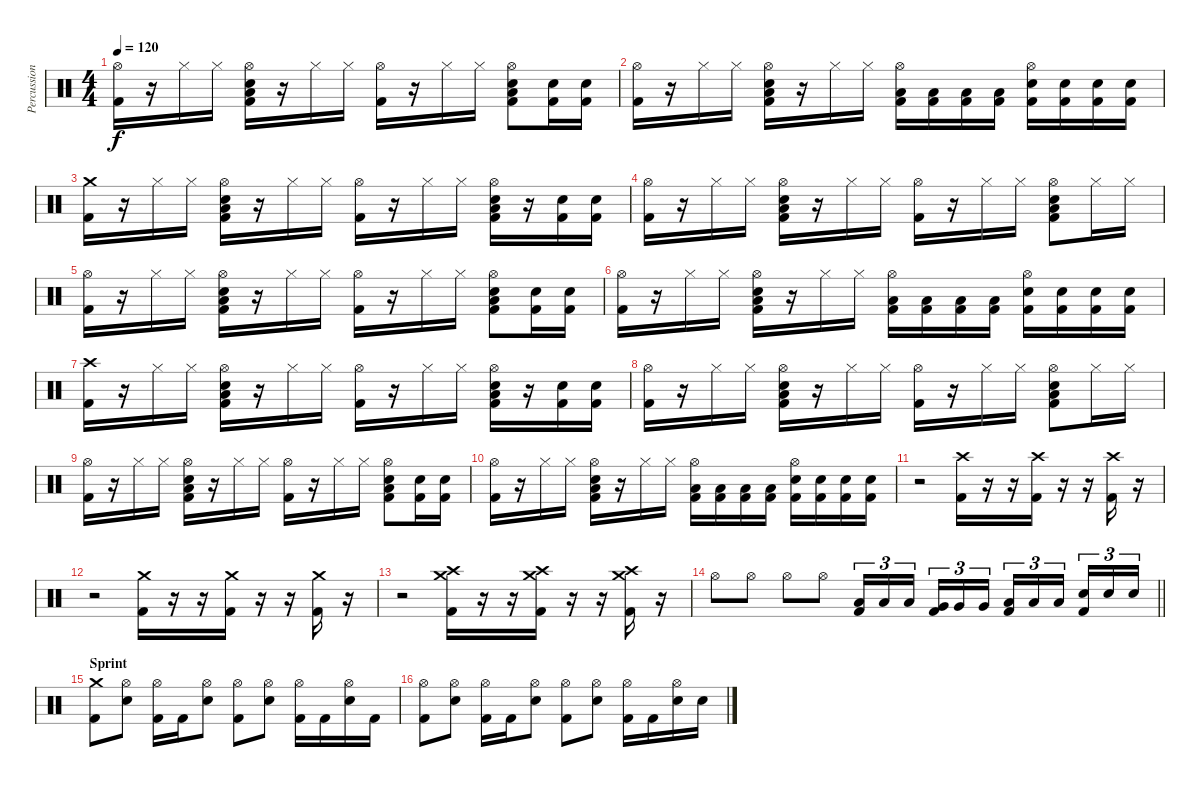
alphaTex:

\track ("Percussion" "Percussion") {instrument percussion}
\staff {score}
\articulation defaults
\ts (4 4)
\tempo 120
\clef neutral
\ks c
("Hi-Hat (open)" "Kick (hit) 2").16{dy f} r.16 "Hi-Hat (closed)".16 "Hi-Hat (closed)".16 ("Hi-Hat (open)" "Electric Snare (hit)" "Low Floor Tom (hit)" "Kick (hit) 2").16 r.16 "Hi-Hat (closed)".16 "Hi-Hat (closed)".16 ("Hi-Hat (open)" "Kick (hit) 2").16 r.16 "Hi-Hat (closed)".16 "Hi-Hat (closed)".16 ("Hi-Hat (open)" "Electric Snare (hit)" "Low Floor Tom (hit)" "Kick (hit) 2").8 ("Electric Snare (hit)" "Kick (hit) 2").16 ("Electric Snare (hit)" "Kick (hit) 2").16 |
("Hi-Hat (open)" "Kick (hit) 2").16 r.16 "Hi-Hat (closed)".16 "Hi-Hat (closed)".16 ("Hi-Hat (open)" "Electric Snare (hit)" "Low Floor Tom (hit)" "Kick (hit) 2").16 r.16 "Hi-Hat (closed)".16 "Hi-Hat (closed)".16 ("Hi-Hat (open)" "Low Floor Tom (hit)" "Kick (hit) 2").16 ("Low Floor Tom (hit)" "Kick (hit) 2").16 ("Low Floor Tom (hit)" "Kick (hit) 2").16 ("Low Floor Tom (hit)" "Kick (hit) 2").16 ("Hi-Hat (open)" "Electric Snare (hit)" "Kick (hit) 2").16 ("Electric Snare (hit)" "Kick (hit) 2").16 ("Electric Snare (hit)" "Kick (hit) 2").16 ("Electric Snare (hit)" "Kick (hit) 2").16 |
("Crash medium (hit)" "Kick (hit) 2").16 r.16 "Hi-Hat (closed)".16 "Hi-Hat (closed)".16 ("Hi-Hat (open)" "Electric Snare (hit)" "Low Floor Tom (hit)" "Kick (hit) 2").16 r.16 "Hi-Hat (closed)".16 "Hi-Hat (closed)".16 ("Hi-Hat (open)" "Kick (hit) 2").16 r.16 "Hi-Hat (closed)".16 "Hi-Hat (closed)".16 ("Hi-Hat (open)" "Electric Snare (hit)" "Low Floor Tom (hit)" "Kick (hit) 2").16 r.16 ("Electric Snare (hit)" "Kick (hit) 2").16 ("Electric Snare (hit)" "Kick (hit) 2").16 |
("Hi-Hat (open)" "Kick (hit) 2").16 r.16 "Hi-Hat (closed)".16 "Hi-Hat (closed)".16 ("Hi-Hat (open)" "Electric Snare (hit)" "Low Floor Tom (hit)" "Kick (hit) 2").16 r.16 "Hi-Hat (closed)".16 "Hi-Hat (closed)".16 ("Hi-Hat (open)" "Kick (hit) 2").16 r.16 "Hi-Hat (closed)".16 "Hi-Hat (closed)".16 ("Hi-Hat (open)" "Electric Snare (hit)" "Low Floor Tom (hit)" "Kick (hit) 2").8 "Hi-Hat (closed)".16 "Hi-Hat (closed)".16 |
("Hi-Hat (open)" "Kick (hit) 2").16 r.16 "Hi-Hat (closed)".16 "Hi-Hat (closed)".16 ("Hi-Hat (open)" "Electric Snare (hit)" "Low Floor Tom (hit)" "Kick (hit) 2").16 r.16 "Hi-Hat (closed)".16 "Hi-Hat (closed)".16 ("Hi-Hat (open)" "Kick (hit) 2").16 r.16 "Hi-Hat (closed)".16 "Hi-Hat (closed)".16 ("Hi-Hat (open)" "Electric Snare (hit)" "Low Floor Tom (hit)" "Kick (hit) 2").8 ("Electric Snare (hit)" "Kick (hit) 2").16 ("Electric Snare (hit)" "Kick (hit) 2").16 |
("Hi-Hat (open)" "Kick (hit) 2").16 r.16 "Hi-Hat (closed)".16 "Hi-Hat (closed)".16 ("Hi-Hat (open)" "Electric Snare (hit)" "Low Floor Tom (hit)" "Kick (hit) 2").16 r.16 "Hi-Hat (closed)".16 "Hi-Hat (closed)".16 ("Hi-Hat (open)" "Low Floor Tom (hit)" "Kick (hit) 2").16 ("Low Floor Tom (hit)" "Kick (hit) 2").16 ("Low Floor Tom (hit)" "Kick (hit) 2").16 ("Low Floor Tom (hit)" "Kick (hit) 2").16 ("Hi-Hat (open)" "Electric Snare (hit)" "Kick (hit) 2").16 ("Electric Snare (hit)" "Kick (hit) 2").16 ("Electric Snare (hit)" "Kick (hit) 2").16 ("Electric Snare (hit)" "Kick (hit) 2").16 |
("Crash high (hit)" "Kick (hit) 2").16 r.16 "Hi-Hat (closed)".16 "Hi-Hat (closed)".16 ("Hi-Hat (open)" "Electric Snare (hit)" "Low Floor Tom (hit)" "Kick (hit) 2").16 r.16 "Hi-Hat (closed)".16 "Hi-Hat (closed)".16 ("Hi-Hat (open)" "Kick (hit) 2").16 r.16 "Hi-Hat (closed)".16 "Hi-Hat (closed)".16 ("Hi-Hat (open)" "Electric Snare (hit)" "Low Floor Tom (hit)" "Kick (hit) 2").16 r.16 ("Electric Snare (hit)" "Kick (hit) 2").16 ("Electric Snare (hit)" "Kick (hit) 2").16 |
("Hi-Hat (open)" "Kick (hit) 2").16 r.16 "Hi-Hat (closed)".16 "Hi-Hat (closed)".16 ("Hi-Hat (open)" "Electric Snare (hit)" "Low Floor Tom (hit)" "Kick (hit) 2").16 r.16 "Hi-Hat (closed)".16 "Hi-Hat (closed)".16 ("Hi-Hat (open)" "Kick (hit) 2").16 r.16 "Hi-Hat (closed)".16 "Hi-Hat (closed)".16 ("Hi-Hat (open)" "Electric Snare (hit)" "Low Floor Tom (hit)" "Kick (hit) 2").8 "Hi-Hat (closed)".16 "Hi-Hat (closed)".16 |
("Hi-Hat (open)" "Kick (hit) 2").16 r.16 "Hi-Hat (closed)".16 "Hi-Hat (closed)".16 ("Hi-Hat (open)" "Electric Snare (hit)" "Low Floor Tom (hit)" "Kick (hit) 2").16 r.16 "Hi-Hat (closed)".16 "Hi-Hat (closed)".16 ("Hi-Hat (open)" "Kick (hit) 2").16 r.16 "Hi-Hat (closed)".16 "Hi-Hat (closed)".16 ("Hi-Hat (open)" "Electric Snare (hit)" "Low Floor Tom (hit)" "Kick (hit) 2").8 ("Electric Snare (hit)" "Kick (hit) 2").16 ("Electric Snare (hit)" "Kick (hit) 2").16 |
("Hi-Hat (open)" "Kick (hit) 2").16 r.16 "Hi-Hat (closed)".16 "Hi-Hat (closed)".16 ("Hi-Hat (open)" "Electric Snare (hit)" "Low Floor Tom (hit)" "Kick (hit) 2").16 r.16 "Hi-Hat (closed)".16 "Hi-Hat (closed)".16 ("Hi-Hat (open)" "Low Floor Tom (hit)" "Kick (hit) 2").16 ("Low Floor Tom (hit)" "Kick (hit) 2").16 ("Low Floor Tom (hit)" "Kick (hit) 2").16 ("Low Floor Tom (hit)" "Kick (hit) 2").16 ("Hi-Hat (open)" "Electric Snare (hit)" "Kick (hit) 2").16 ("Electric Snare (hit)" "Kick (hit) 2").16 ("Electric Snare (hit)" "Kick (hit) 2").16 ("Electric Snare (hit)" "Kick (hit) 2").16 |
r.2 ("Crash high (hit)" "Kick (hit) 2").16 r.16 r.16 ("Crash high (hit)" "Kick (hit) 2").16 r.16 r.16 ("Crash high (hit)" "Kick (hit) 2").16 r.16 |
r.2 ("Crash medium (hit)" "Kick (hit) 2").16 r.16 r.16 ("Crash medium (hit)" "Kick (hit) 2").16 r.16 r.16 ("Crash medium (hit)" "Kick (hit) 2").16 r.16 |
r.2 ("Crash high (hit)" "Crash medium (hit)" "Kick (hit) 2").16 r.16 r.16 ("Crash high (hit)" "Crash medium (hit)" "Kick (hit) 2").16 r.16 r.16 ("Crash high (hit)" "Crash medium (hit)" "Kick (hit) 2").16 r.16 |
\barLineRight lightlight "Hi-Hat (open)".8 "Hi-Hat (open)".8 "Hi-Hat (open)".8 "Hi-Hat (open)".8
("Low Tom (hit)" "Kick (hit) 2").16{tu (3 2)} "Low Tom (hit)".16{tu (3 2)} "Low Tom (hit)".16{tu (3 2) beam splitsecondary} ("Very Low Tom (hit)" "Kick (hit) 2").16{tu (3 2)} "Very Low Tom (hit)".16{tu (3 2)} "Very Low Tom (hit)".16{tu (3 2)} ("Low Floor Tom (hit)" "Kick (hit) 2").16{tu (3 2)} "Low Floor Tom (hit)".16{tu (3 2)} "Low Floor Tom (hit)".16{tu (3 2) beam splitsecondary} ("Electric Snare (hit)" "Kick (hit) 2").16{tu (3 2)} "Electric Snare (hit)".16{tu (3 2)} "Electric Snare (hit)".16{tu (3 2)} |
\section ("" "Sprint")
("Crash medium (hit)" "Kick (hit) 2").8 ("Hi-Hat (open)" "Electric Snare (hit)").8 ("Hi-Hat (open)" "Kick (hit) 2").16 "Kick (hit) 2".16 ("Hi-Hat (open)" "Electric Snare (hit)").8 ("Hi-Hat (open)" "Kick (hit) 2").8 ("Hi-Hat (open)" "Electric Snare (hit)").8 ("Hi-Hat (open)" "Kick (hit) 2").16 "Kick (hit) 2".16 ("Hi-Hat (open)" "Electric Snare (hit)").16 "Kick (hit) 2".16 |
("Hi-Hat (open)" "Kick (hit) 2").8 ("Hi-Hat (open)" "Electric Snare (hit)").8 ("Hi-Hat (open)" "Kick (hit) 2").16 "Kick (hit) 2".16 ("Hi-Hat (open)" "Electric Snare (hit)").8 ("Hi-Hat (open)" "Kick (hit) 2").8 ("Hi-Hat (open)" "Electric Snare (hit)").8 ("Hi-Hat (open)" "Kick (hit) 2").16 "Kick (hit) 2".16 ("Hi-Hat (open)" "Electric Snare (hit)").16 "Electric Snare (hit)".16
